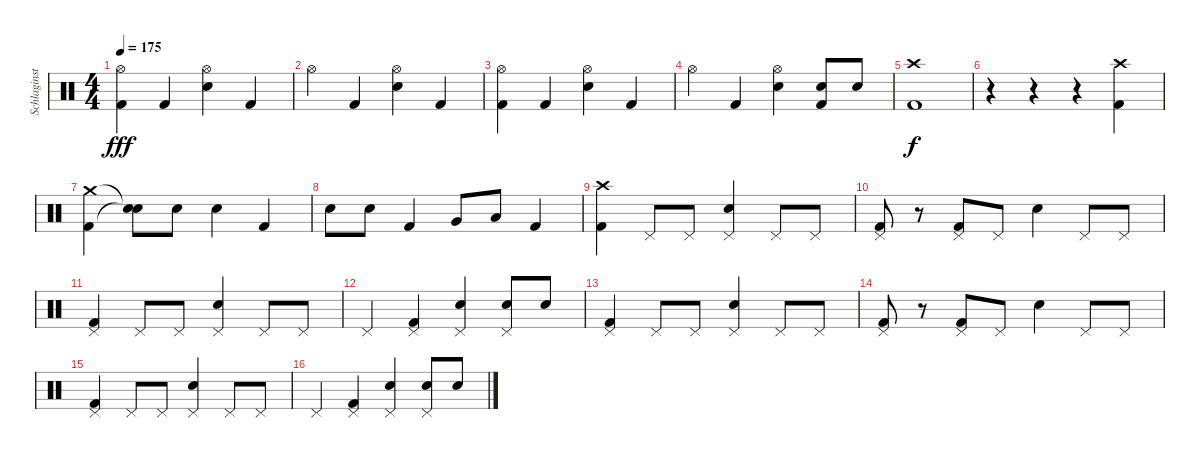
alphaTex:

\track ("Schlaginstrumente - Auswahl" "Schlaginst") {instrument percussion}
\staff {score}
\articulation defaults
\ts (4 4)
\tempo 175
\clef neutral
\ks c
("Hi-Hat (open)" "Kick (hit) 2").4{dy fff} "Kick (hit) 2".4 ("Hi-Hat (open)" "Electric Snare (hit)").4 "Kick (hit) 2".4 |
"Hi-Hat (open)".4 "Kick (hit) 2".4 ("Hi-Hat (open)" "Electric Snare (hit)").4 "Kick (hit) 2".4 |
("Hi-Hat (open)" "Kick (hit) 2").4 "Kick (hit) 2".4 ("Hi-Hat (open)" "Electric Snare (hit)").4 "Kick (hit) 2".4 |
"Hi-Hat (open)".4 "Kick (hit) 2".4 ("Hi-Hat (open)" "Electric Snare (hit)").4 ("Electric Snare (hit)" "Kick (hit) 2").8 "Electric Snare (hit)".8 |
("Kick (hit) 2" "Crash high (hit)").1{dy f} |
r.4 r.4 r.4 ("Kick (hit) 2" "Crash high (hit)").4 |
("Kick (hit) 2" "Crash medium (hit)").4 ("Snare (hit)"{t} "Electric Snare (hit)"{t}).8 "Electric Snare (hit)".8 "Electric Snare (hit)".4 "Kick (hit) 2".4 |
"Electric Snare (hit)".8 "Electric Snare (hit)".8 "Kick (hit) 2".4 "Very Low Tom (hit)".8 "Low Floor Tom (hit)".8 "Kick (hit) 2".4 |
("Crash high (hit)" "Kick (hit) 2").4 "Pedal Hi-Hat (hit)".8 "Pedal Hi-Hat (hit)".8 ("Pedal Hi-Hat (hit)" "Electric Snare (hit)").4 "Pedal Hi-Hat (hit)".8 "Pedal Hi-Hat (hit)".8 |
("Pedal Hi-Hat (hit)" "Kick (hit) 2").8 r.8 ("Kick (hit) 2" "Pedal Hi-Hat (hit)").8 "Pedal Hi-Hat (hit)".8 "Electric Snare (hit)".4 "Pedal Hi-Hat (hit)".8 "Pedal Hi-Hat (hit)".8 |
("Pedal Hi-Hat (hit)" "Kick (hit) 2").4 "Pedal Hi-Hat (hit)".8 "Pedal Hi-Hat (hit)".8 ("Pedal Hi-Hat (hit)" "Electric Snare (hit)").4 "Pedal Hi-Hat (hit)".8 "Pedal Hi-Hat (hit)".8 |
"Pedal Hi-Hat (hit)".4 ("Kick (hit) 2" "Pedal Hi-Hat (hit)").4 ("Electric Snare (hit)" "Pedal Hi-Hat (hit)").4 ("Electric Snare (hit)" "Pedal Hi-Hat (hit)").8 "Electric Snare (hit)".8 |
("Pedal Hi-Hat (hit)" "Kick (hit) 2").4 "Pedal Hi-Hat (hit)".8 "Pedal Hi-Hat (hit)".8 ("Pedal Hi-Hat (hit)" "Electric Snare (hit)").4 "Pedal Hi-Hat (hit)".8 "Pedal Hi-Hat (hit)".8 |
("Pedal Hi-Hat (hit)" "Kick (hit) 2").8 r.8 ("Kick (hit) 2" "Pedal Hi-Hat (hit)").8 "Pedal Hi-Hat (hit)".8 "Electric Snare (hit)".4 "Pedal Hi-Hat (hit)".8 "Pedal Hi-Hat (hit)".8 |
("Pedal Hi-Hat (hit)" "Kick (hit) 2").4 "Pedal Hi-Hat (hit)".8 "Pedal Hi-Hat (hit)".8 ("Pedal Hi-Hat (hit)" "Electric Snare (hit)").4 "Pedal Hi-Hat (hit)".8 "Pedal Hi-Hat (hit)".8 |
"Pedal Hi-Hat (hit)".4 ("Kick (hit) 2" "Pedal Hi-Hat (hit)").4 ("Electric Snare (hit)" "Pedal Hi-Hat (hit)").4 ("Electric Snare (hit)" "Pedal Hi-Hat (hit)").8 "Electric Snare (hit)".8
